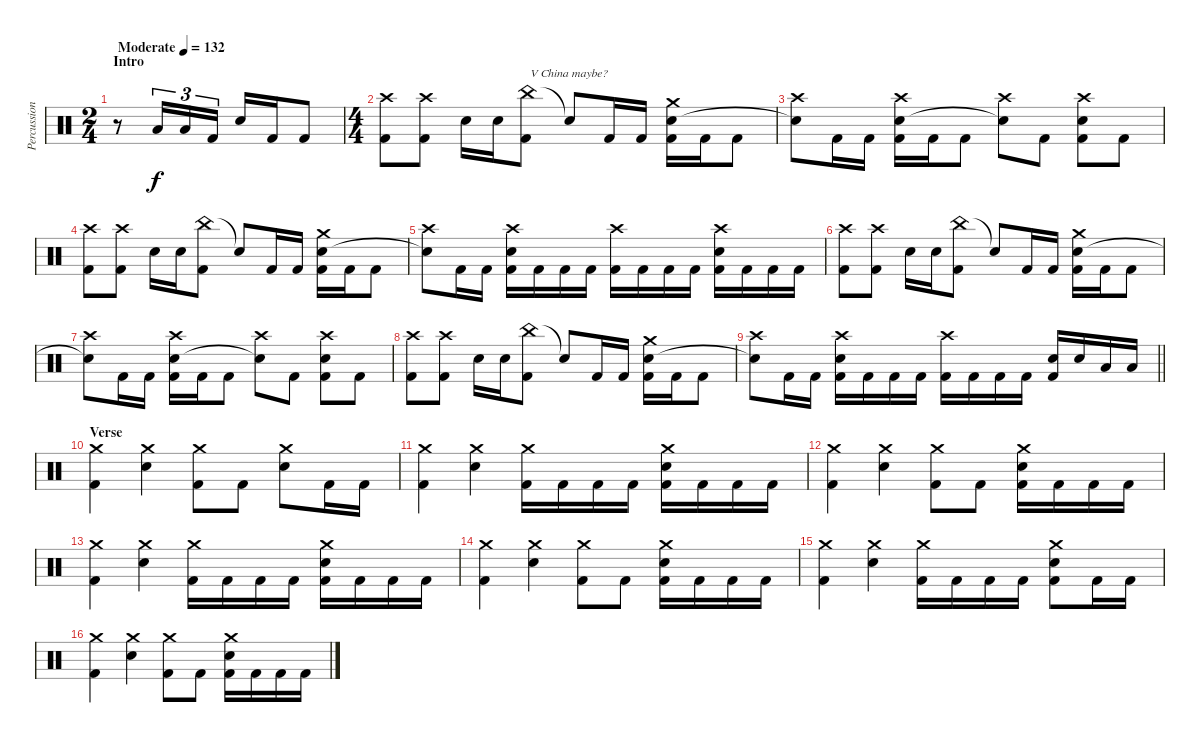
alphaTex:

\track ("Percussion" "Percussion") {instrument percussion}
\staff {score}
\articulation defaults
\ts (2 4)
\section ("" "Intro")
\tempo (132 "Moderate")
\clef neutral
\ks c
r.8{dy f} "Low Tom (hit)".16{tu (3 2)} "Low Tom (hit)".16{tu (3 2)} "Kick (hit) 2".16{tu (3 2)} "Electric Snare (hit)".16 "Kick (hit) 2".16 "Kick (hit) 2".8 |
\ts (4 4)
("Crash high (hit)" "Kick (hit) 2").8 ("Crash high (hit)" "Kick (hit) 2").8 "Electric Snare (hit)".16 "Electric Snare (hit)".16 ("China (hit)" "Kick (hit) 2").8{txt "V China maybe?"} "Snare (hit)"{t}.8 "Kick (hit) 2".16 "Kick (hit) 2".16 ("Crash medium (hit)" "Electric Snare (hit)" "Kick (hit) 2").16 "Kick (hit) 2".16 "Kick (hit) 2".8 |
("Crash high (hit)" "Snare (hit)"{t}).8 "Kick (hit) 2".16 "Kick (hit) 2".16 ("Crash high (hit)" "Electric Snare (hit)" "Kick (hit) 2").16 "Kick (hit) 2".16 "Kick (hit) 2".8 ("Crash high (hit)" "Snare (hit)"{t}).8 "Kick (hit) 2".8 ("Crash high (hit)" "Electric Snare (hit)" "Kick (hit) 2").8 "Kick (hit) 2".8 |
("Crash high (hit)" "Kick (hit) 2").8 ("Crash high (hit)" "Kick (hit) 2").8 "Electric Snare (hit)".16 "Electric Snare (hit)".16 ("China (hit)" "Kick (hit) 2").8 "Snare (hit)"{t}.8 "Kick (hit) 2".16 "Kick (hit) 2".16 ("Crash medium (hit)" "Electric Snare (hit)" "Kick (hit) 2").16 "Kick (hit) 2".16 "Kick (hit) 2".8 |
("Crash high (hit)" "Snare (hit)"{t}).8 "Kick (hit) 2".16 "Kick (hit) 2".16 ("Crash high (hit)" "Electric Snare (hit)" "Kick (hit) 2").16 "Kick (hit) 2".16 "Kick (hit) 2".16 "Kick (hit) 2".16 ("Crash high (hit)" "Kick (hit) 2").16 "Kick (hit) 2".16 "Kick (hit) 2".16 "Kick (hit) 2".16 ("Crash high (hit)" "Electric Snare (hit)" "Kick (hit) 2").16 "Kick (hit) 2".16 "Kick (hit) 2".16 "Kick (hit) 2".16 |
("Crash high (hit)" "Kick (hit) 2").8 ("Crash high (hit)" "Kick (hit) 2").8 "Electric Snare (hit)".16 "Electric Snare (hit)".16 ("China (hit)" "Kick (hit) 2").8 "Snare (hit)"{t}.8 "Kick (hit) 2".16 "Kick (hit) 2".16 ("Crash medium (hit)" "Electric Snare (hit)" "Kick (hit) 2").16 "Kick (hit) 2".16 "Kick (hit) 2".8 |
("Crash high (hit)" "Snare (hit)"{t}).8 "Kick (hit) 2".16 "Kick (hit) 2".16 ("Crash high (hit)" "Electric Snare (hit)" "Kick (hit) 2").16 "Kick (hit) 2".16 "Kick (hit) 2".8 ("Crash high (hit)" "Snare (hit)"{t}).8 "Kick (hit) 2".8 ("Crash high (hit)" "Electric Snare (hit)" "Kick (hit) 2").8 "Kick (hit) 2".8 |
("Crash high (hit)" "Kick (hit) 2").8 ("Crash high (hit)" "Kick (hit) 2").8 "Electric Snare (hit)".16 "Electric Snare (hit)".16 ("China (hit)" "Kick (hit) 2").8 "Snare (hit)"{t}.8 "Kick (hit) 2".16 "Kick (hit) 2".16 ("Crash medium (hit)" "Electric Snare (hit)" "Kick (hit) 2").16 "Kick (hit) 2".16 "Kick (hit) 2".8 |
\barLineRight lightlight
("Crash high (hit)" "Snare (hit)"{t}).8 "Kick (hit) 2".16 "Kick (hit) 2".16 ("Crash high (hit)" "Electric Snare (hit)" "Kick (hit) 2").16 "Kick (hit) 2".16 "Kick (hit) 2".16 "Kick (hit) 2".16 ("Crash high (hit)" "Kick (hit) 2").16 "Kick (hit) 2".16 "Kick (hit) 2".16 "Kick (hit) 2".16 ("Electric Snare (hit)" "Kick (hit) 2").16 "Electric Snare (hit)".16 "Low Tom (hit)".16 "Low Tom (hit)".16 |
\section ("" "Verse")
("Crash medium (hit)" "Kick (hit) 2").4 ("Crash medium (hit)" "Electric Snare (hit)").4 ("Crash medium (hit)" "Kick (hit) 2").8 "Kick (hit) 2".8 ("Crash medium (hit)" "Electric Snare (hit)").8 "Kick (hit) 2".16 "Kick (hit) 2".16 |
("Crash medium (hit)" "Kick (hit) 2").4 ("Crash medium (hit)" "Electric Snare (hit)").4 ("Crash medium (hit)" "Kick (hit) 2").16 "Kick (hit) 2".16 "Kick (hit) 2".16 "Kick (hit) 2".16 ("Crash medium (hit)" "Electric Snare (hit)" "Kick (hit) 2").16 "Kick (hit) 2".16 "Kick (hit) 2".16 "Kick (hit) 2".16 |
("Crash medium (hit)" "Kick (hit) 2").4 ("Crash medium (hit)" "Electric Snare (hit)").4 ("Crash medium (hit)" "Kick (hit) 2").8 "Kick (hit) 2".8 ("Crash medium (hit)" "Electric Snare (hit)" "Kick (hit) 2").16 "Kick (hit) 2".16 "Kick (hit) 2".16 "Kick (hit) 2".16 |
("Crash medium (hit)" "Kick (hit) 2").4 ("Crash medium (hit)" "Electric Snare (hit)").4 ("Crash medium (hit)" "Kick (hit) 2").16 "Kick (hit) 2".16 "Kick (hit) 2".16 "Kick (hit) 2".16 ("Crash medium (hit)" "Electric Snare (hit)" "Kick (hit) 2").16 "Kick (hit) 2".16 "Kick (hit) 2".16 "Kick (hit) 2".16 |
("Crash medium (hit)" "Kick (hit) 2").4 ("Crash medium (hit)" "Electric Snare (hit)").4 ("Crash medium (hit)" "Kick (hit) 2").8 "Kick (hit) 2".8 ("Crash medium (hit)" "Electric Snare (hit)" "Kick (hit) 2").16 "Kick (hit) 2".16 "Kick (hit) 2".16 "Kick (hit) 2".16 |
("Crash medium (hit)" "Kick (hit) 2").4 ("Crash medium (hit)" "Electric Snare (hit)").4 ("Crash medium (hit)" "Kick (hit) 2").16 "Kick (hit) 2".16 "Kick (hit) 2".16 "Kick (hit) 2".16 ("Crash medium (hit)" "Electric Snare (hit)" "Kick (hit) 2").8 "Kick (hit) 2".16 "Kick (hit) 2".16 |
("Crash medium (hit)" "Kick (hit) 2").4 ("Crash medium (hit)" "Electric Snare (hit)").4 ("Crash medium (hit)" "Kick (hit) 2").8 "Kick (hit) 2".8 ("Crash medium (hit)" "Electric Snare (hit)" "Kick (hit) 2").16 "Kick (hit) 2".16 "Kick (hit) 2".16 "Kick (hit) 2".16
